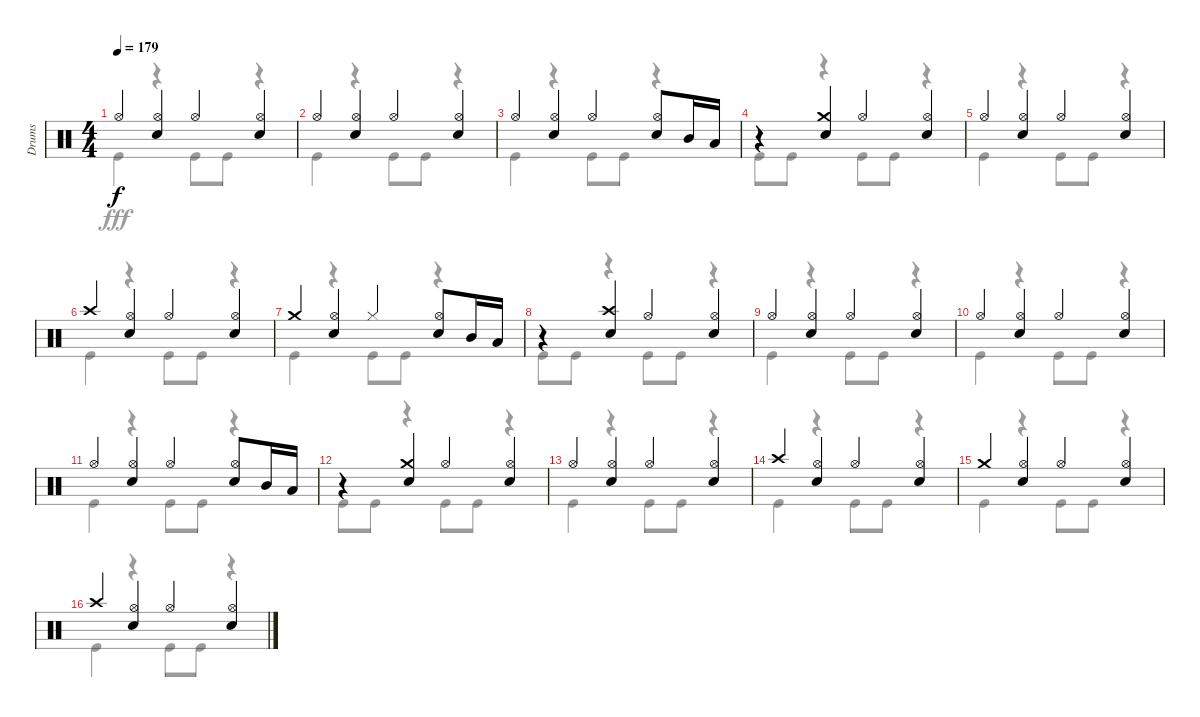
\track ("Drums" "Drums") {instrument percussion}
\staff {score}
\articulation defaults
\voice
\ts (4 4)
\tempo 179
\clef neutral
\ks c "Hi-Hat (open)".4{dy f}
("Hi-Hat (open)" "Snare (hit) 2").4 "Hi-Hat (open)".4 ("Hi-Hat (open)" "Snare (hit) 2").4 |
"Hi-Hat (open)".4 ("Hi-Hat (open)" "Snare (hit) 2").4 "Hi-Hat (open)".4 ("Hi-Hat (open)" "Snare (hit) 2").4 |
"Hi-Hat (open)".4 ("Hi-Hat (open)" "Snare (hit) 2").4 "Hi-Hat (open)".4 ("Snare (hit) 2" "Hi-Hat (open)").8 "Mid Tom (hit)".16 "Low Tom (hit)".16 |
r.4 ("Crash medium (hit)" "Snare (hit) 2").4 "Hi-Hat (open)".4 ("Hi-Hat (open)" "Snare (hit) 2").4 |
"Hi-Hat (open)".4 ("Hi-Hat (open)" "Snare (hit) 2").4 "Hi-Hat (open)".4 ("Hi-Hat (open)" "Snare (hit) 2").4 |
"Crash high (hit)".4 ("Hi-Hat (open)" "Snare (hit) 2").4 "Hi-Hat (open)".4 ("Hi-Hat (open)" "Snare (hit) 2").4 |
"Crash medium (hit)".4 ("Hi-Hat (open)" "Snare (hit) 2").4 "Hi-Hat (closed)".4 ("Snare (hit) 2" "Hi-Hat (open)").8 "Mid Tom (hit)".16 "Low Tom (hit)".16 |
r.4 ("Crash high (hit)" "Snare (hit) 2").4 "Hi-Hat (open)".4 ("Hi-Hat (open)" "Snare (hit) 2").4 |
"Hi-Hat (open)".4 ("Hi-Hat (open)" "Snare (hit) 2").4 "Hi-Hat (open)".4 ("Hi-Hat (open)" "Snare (hit) 2").4 |
"Hi-Hat (open)".4 ("Hi-Hat (open)" "Snare (hit) 2").4 "Hi-Hat (open)".4 ("Hi-Hat (open)" "Snare (hit) 2").4 |
"Hi-Hat (open)".4 ("Hi-Hat (open)" "Snare (hit) 2").4 "Hi-Hat (open)".4 ("Hi-Hat (open)" "Snare (hit) 2").8 "Mid Tom (hit)".16 "Low Tom (hit)".16 |
r.4 ("Crash medium (hit)" "Snare (hit) 2").4 "Hi-Hat (open)".4 ("Hi-Hat (open)" "Snare (hit) 2").4 |
"Hi-Hat (open)".4 ("Hi-Hat (open)" "Snare (hit) 2").4 "Hi-Hat (open)".4 ("Hi-Hat (open)" "Snare (hit) 2").4 |
"Crash high (hit)".4 ("Hi-Hat (open)" "Snare (hit) 2").4 "Hi-Hat (open)".4 ("Hi-Hat (open)" "Snare (hit) 2").4 |
"Crash medium (hit)".4 ("Hi-Hat (open)" "Snare (hit) 2").4 "Hi-Hat (open)".4 ("Hi-Hat (open)" "Snare (hit) 2").4 |
"Crash high (hit)".4 ("Hi-Hat (open)" "Snare (hit) 2").4 "Hi-Hat (open)".4 ("Hi-Hat (open)" "Snare (hit) 2").4
\voice
\clef neutral
\ottava regular
\simile none
\ks c "Kick (hit)".4{dy fff}
r.4 "Kick (hit)".8 "Kick (hit)".8 r.4 |
"Kick (hit)".4 r.4 "Kick (hit)".8 "Kick (hit)".8 r.4 |
"Kick (hit)".4 r.4 "Kick (hit)".8 "Kick (hit)".8 r.4 |
"Kick (hit)".8 "Kick (hit)".8 r.4 "Kick (hit)".8 "Kick (hit)".8 r.4 |
"Kick (hit)".4 r.4 "Kick (hit)".8 "Kick (hit)".8 r.4 |
"Kick (hit)".4 r.4 "Kick (hit)".8 "Kick (hit)".8 r.4 |
"Kick (hit)".4 r.4 "Kick (hit)".8 "Kick (hit)".8 r.4 |
"Kick (hit)".8 "Kick (hit)".8 r.4 "Kick (hit)".8 "Kick (hit)".8 r.4 |
"Kick (hit)".4 r.4 "Kick (hit)".8 "Kick (hit)".8 r.4 |
"Kick (hit)".4 r.4 "Kick (hit)".8 "Kick (hit)".8 r.4 |
"Kick (hit)".4 r.4 "Kick (hit)".8 "Kick (hit)".8 r.4 |
"Kick (hit)".8 "Kick (hit)".8 r.4 "Kick (hit)".8 "Kick (hit)".8 r.4 |
"Kick (hit)".4 r.4 "Kick (hit)".8 "Kick (hit)".8 r.4 |
"Kick (hit)".4 r.4 "Kick (hit)".8 "Kick (hit)".8 r.4 |
"Kick (hit)".4 r.4 "Kick (hit)".8 "Kick (hit)".8 r.4 |
"Kick (hit)".4 r.4 "Kick (hit)".8 "Kick (hit)".8 r.4
